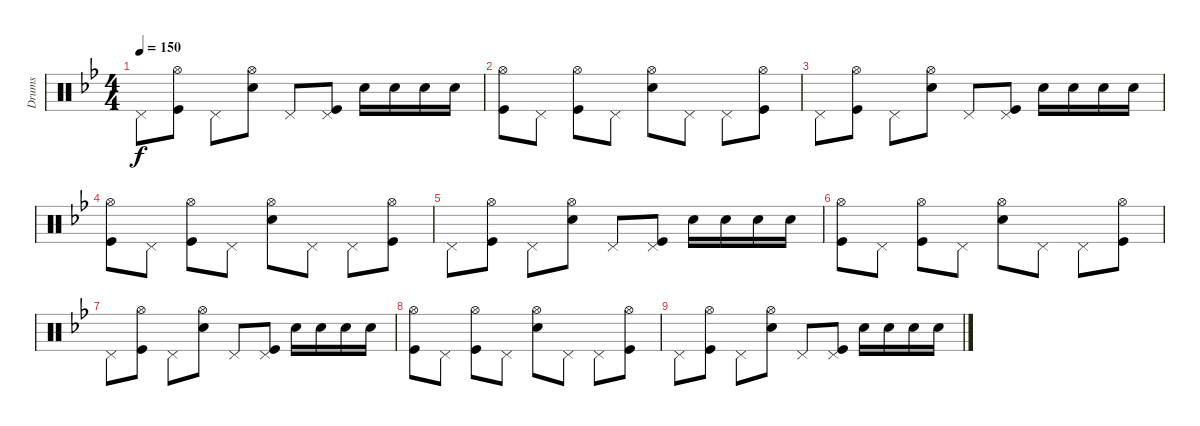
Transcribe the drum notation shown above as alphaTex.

\track ("Drums" "Drums") {instrument percussion}
\staff {score}
\articulation defaults
\ts (4 4)
\tempo 150
\clef neutral
\ks bb "Pedal Hi-Hat (hit)".8{dy f}
("Hi-Hat (open)" "Kick (hit)").8 "Pedal Hi-Hat (hit)".8 ("Hi-Hat (open)" "Electric Snare (hit)").8 "Pedal Hi-Hat (hit)".8 ("Pedal Hi-Hat (hit)" "Kick (hit)").8 "Electric Snare (hit)".16 "Electric Snare (hit)".16 "Electric Snare (hit)".16 "Electric Snare (hit)".16 |
("Hi-Hat (open)" "Kick (hit)").8 "Pedal Hi-Hat (hit)".8 ("Hi-Hat (open)" "Kick (hit)").8 "Pedal Hi-Hat (hit)".8 ("Hi-Hat (open)" "Electric Snare (hit)").8 "Pedal Hi-Hat (hit)".8 "Pedal Hi-Hat (hit)".8 ("Hi-Hat (open)" "Kick (hit)").8 |
"Pedal Hi-Hat (hit)".8 ("Hi-Hat (open)" "Kick (hit)").8 "Pedal Hi-Hat (hit)".8 ("Hi-Hat (open)" "Electric Snare (hit)").8 "Pedal Hi-Hat (hit)".8 ("Pedal Hi-Hat (hit)" "Kick (hit)").8 "Electric Snare (hit)".16 "Electric Snare (hit)".16 "Electric Snare (hit)".16 "Electric Snare (hit)".16 |
("Hi-Hat (open)" "Kick (hit)").8 "Pedal Hi-Hat (hit)".8 ("Hi-Hat (open)" "Kick (hit)").8 "Pedal Hi-Hat (hit)".8 ("Hi-Hat (open)" "Electric Snare (hit)").8 "Pedal Hi-Hat (hit)".8 "Pedal Hi-Hat (hit)".8 ("Hi-Hat (open)" "Kick (hit)").8 |
"Pedal Hi-Hat (hit)".8 ("Hi-Hat (open)" "Kick (hit)").8 "Pedal Hi-Hat (hit)".8 ("Hi-Hat (open)" "Electric Snare (hit)").8 "Pedal Hi-Hat (hit)".8 ("Pedal Hi-Hat (hit)" "Kick (hit)").8 "Electric Snare (hit)".16 "Electric Snare (hit)".16 "Electric Snare (hit)".16 "Electric Snare (hit)".16 |
("Hi-Hat (open)" "Kick (hit)").8 "Pedal Hi-Hat (hit)".8 ("Hi-Hat (open)" "Kick (hit)").8 "Pedal Hi-Hat (hit)".8 ("Hi-Hat (open)" "Electric Snare (hit)").8 "Pedal Hi-Hat (hit)".8 "Pedal Hi-Hat (hit)".8 ("Hi-Hat (open)" "Kick (hit)").8 |
"Pedal Hi-Hat (hit)".8 ("Hi-Hat (open)" "Kick (hit)").8 "Pedal Hi-Hat (hit)".8 ("Hi-Hat (open)" "Electric Snare (hit)").8 "Pedal Hi-Hat (hit)".8 ("Pedal Hi-Hat (hit)" "Kick (hit)").8 "Electric Snare (hit)".16 "Electric Snare (hit)".16 "Electric Snare (hit)".16 "Electric Snare (hit)".16 |
("Hi-Hat (open)" "Kick (hit)").8 "Pedal Hi-Hat (hit)".8 ("Hi-Hat (open)" "Kick (hit)").8 "Pedal Hi-Hat (hit)".8 ("Hi-Hat (open)" "Electric Snare (hit)").8 "Pedal Hi-Hat (hit)".8 "Pedal Hi-Hat (hit)".8 ("Hi-Hat (open)" "Kick (hit)").8 |
"Pedal Hi-Hat (hit)".8 ("Hi-Hat (open)" "Kick (hit)").8 "Pedal Hi-Hat (hit)".8 ("Hi-Hat (open)" "Electric Snare (hit)").8 "Pedal Hi-Hat (hit)".8 ("Pedal Hi-Hat (hit)" "Kick (hit)").8 "Electric Snare (hit)".16 "Electric Snare (hit)".16 "Electric Snare (hit)".16 "Electric Snare (hit)".16
